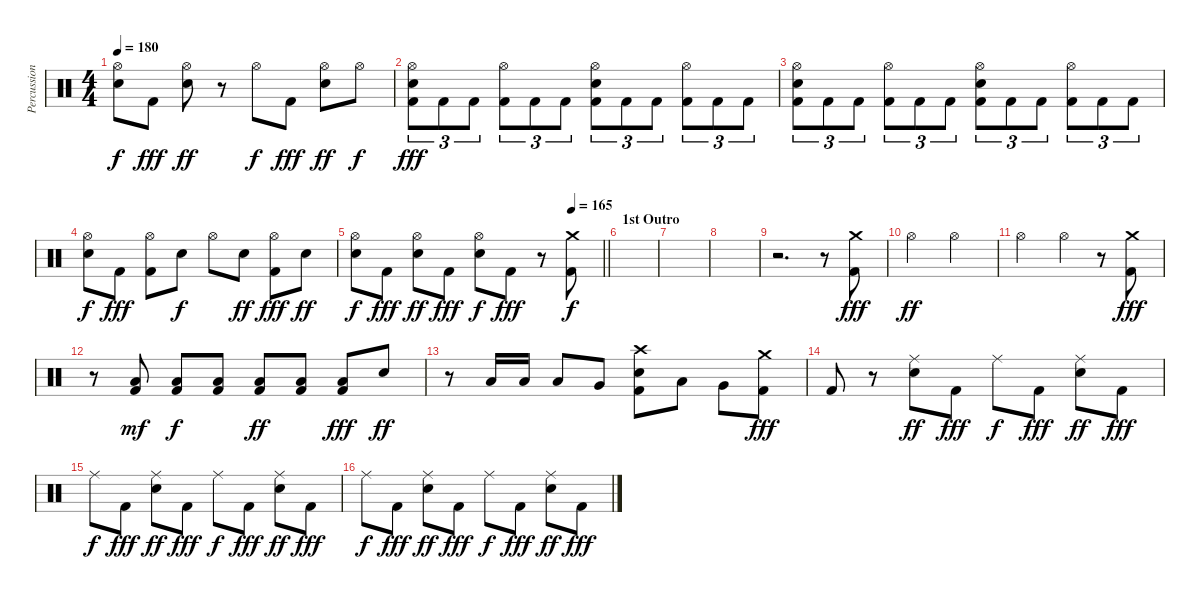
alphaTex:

\track ("Percussion" "Percussion") {instrument percussion}
\staff {score}
\articulation defaults
\ts (4 4)
\tempo 180
\clef neutral
\ks c
("Hi-Hat (open)" "Snare (hit)").8{dy f} "Kick (hit) 2".8{dy fff} ("Hi-Hat (open)" "Electric Snare (hit)").8{dy ff} r.8 "Hi-Hat (open)".8{dy f} "Kick (hit) 2".8{dy fff} ("Hi-Hat (open)" "Electric Snare (hit)").8{dy ff} "Hi-Hat (open)".8{dy f} |
("Hi-Hat (open)" "Electric Snare (hit)" "Kick (hit) 2").8{tu (3 2) dy fff} "Kick (hit) 2".8{tu (3 2)} "Kick (hit) 2".8{tu (3 2)} ("Hi-Hat (open)" "Kick (hit) 2").8{tu (3 2)} "Kick (hit) 2".8{tu (3 2)} "Kick (hit) 2".8{tu (3 2)} ("Hi-Hat (open)" "Electric Snare (hit)" "Kick (hit) 2").8{tu (3 2)} "Kick (hit) 2".8{tu (3 2)} "Kick (hit) 2".8{tu (3 2)} ("Hi-Hat (open)" "Kick (hit) 2").8{tu (3 2)} "Kick (hit) 2".8{tu (3 2)} "Kick (hit) 2".8{tu (3 2)} |
("Hi-Hat (open)" "Electric Snare (hit)" "Kick (hit) 2").8{tu (3 2)} "Kick (hit) 2".8{tu (3 2)} "Kick (hit) 2".8{tu (3 2)} ("Hi-Hat (open)" "Kick (hit) 2").8{tu (3 2)} "Kick (hit) 2".8{tu (3 2)} "Kick (hit) 2".8{tu (3 2)} ("Hi-Hat (open)" "Electric Snare (hit)" "Kick (hit) 2").8{tu (3 2)} "Kick (hit) 2".8{tu (3 2)} "Kick (hit) 2".8{tu (3 2)} ("Hi-Hat (open)" "Kick (hit) 2").8{tu (3 2)} "Kick (hit) 2".8{tu (3 2)} "Kick (hit) 2".8{tu (3 2)} |
("Hi-Hat (open)" "Electric Snare (hit)").8{dy f} "Kick (hit) 2".8{dy fff} ("Hi-Hat (open)" "Kick (hit) 2").8 "Electric Snare (hit)".8{dy f} "Hi-Hat (open)".8 "Electric Snare (hit)".8{dy ff} ("Hi-Hat (open)" "Kick (hit) 2").8{dy fff} "Electric Snare (hit)".8{dy ff} |
\tempo (165 0.875)
\barLineRight lightlight
("Hi-Hat (open)" "Snare (hit)").8{dy f} "Kick (hit) 2".8{dy fff} ("Hi-Hat (open)" "Electric Snare (hit)").8{dy ff} "Kick (hit) 2".8{dy fff} ("Hi-Hat (open)" "Electric Snare (hit)").8{dy f} "Kick (hit) 2".8{dy fff} r.8 ("Crash medium (hit)" "Kick (hit) 2").8{dy f} |
\section ("" "1st Outro")
|
|
|
r.2{d} r.8 ("Crash medium (hit)" "Kick (hit) 2").8{dy fff} |
"Hi-Hat (open)".2{dy ff} "Hi-Hat (open)".2 |
"Hi-Hat (open)".2 "Hi-Hat (open)".4 r.8 ("Crash medium (hit)" "Kick (hit) 2").8{dy fff} |
r.8 ("Low Floor Tom (hit)" "Kick (hit) 2").8{dy mf} ("Low Floor Tom (hit)" "Kick (hit) 2").8{dy f} ("Low Floor Tom (hit)" "Kick (hit) 2").8 ("Low Floor Tom (hit)" "Kick (hit) 2").8{dy ff} ("Low Floor Tom (hit)" "Kick (hit) 2").8 ("Low Floor Tom (hit)" "Kick (hit) 2").8{dy fff} "Electric Snare (hit)".8{dy ff} |
r.8 "Low Tom (hit)".16 "Low Tom (hit)".16 "Low Tom (hit)".8 "Very Low Tom (hit)".8 ("Crash high (hit)" "Electric Snare (hit)" "Kick (hit) 2").8 "Low Tom (hit)".8 "Very Low Tom (hit)".8 ("Crash medium (hit)" "Kick (hit) 2").8{dy fff} |
"Kick (hit) 2".8 r.8 ("Ride (middle)" "Electric Snare (hit)").8{dy ff} "Kick (hit) 2".8{dy fff} "Ride (middle)".8{dy f} "Kick (hit) 2".8{dy fff} ("Ride (middle)" "Electric Snare (hit)").8{dy ff} "Kick (hit) 2".8{dy fff} |
"Ride (middle)".8{dy f} "Kick (hit) 2".8{dy fff} ("Ride (middle)" "Electric Snare (hit)").8{dy ff} "Kick (hit) 2".8{dy fff} "Ride (middle)".8{dy f} "Kick (hit) 2".8{dy fff} ("Ride (middle)" "Electric Snare (hit)").8{dy ff} "Kick (hit) 2".8{dy fff} |
"Ride (middle)".8{dy f} "Kick (hit) 2".8{dy fff} ("Ride (middle)" "Electric Snare (hit)").8{dy ff} "Kick (hit) 2".8{dy fff} "Ride (middle)".8{dy f} "Kick (hit) 2".8{dy fff} ("Ride (middle)" "Electric Snare (hit)").8{dy ff} "Kick (hit) 2".8{dy fff}
